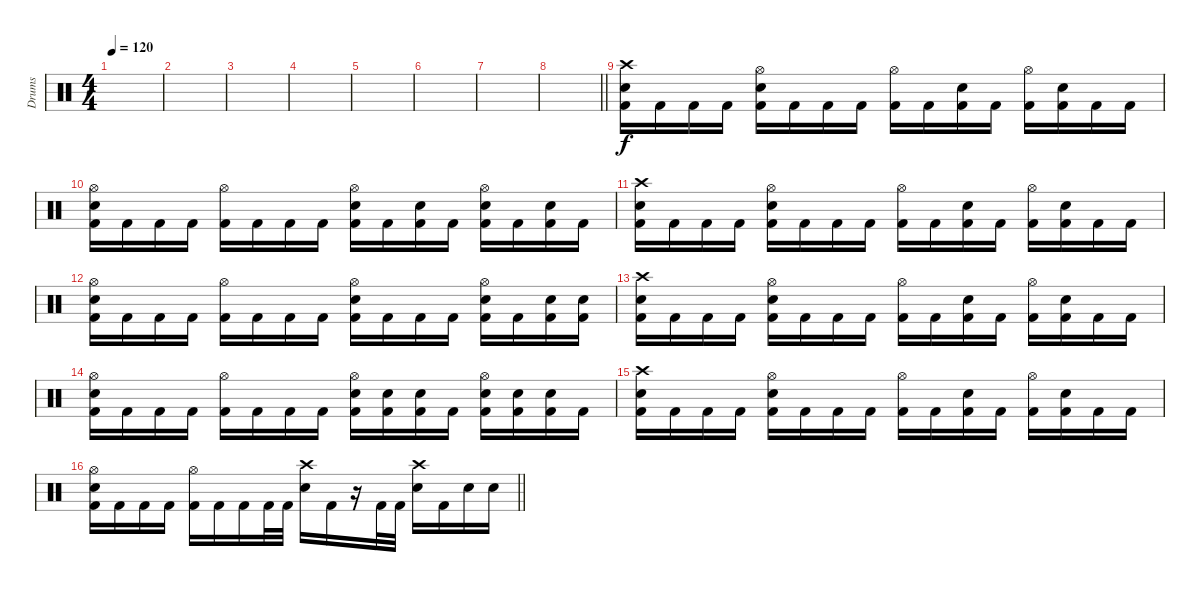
\track ("Drums" "Drums") {instrument percussion}
\staff
\articulation defaults
\ts (4 4)
\section ("" "")
\tempo 120
\clef neutral
\ks c
|
|
|
|
|
|
|
\barLineRight lightlight
|
\section ("" "")
("Crash high (hit)" "Electric Snare (hit)" "Kick (hit) 2").16 "Kick (hit) 2".16 "Kick (hit) 2".16 "Kick (hit) 2".16 ("Hi-Hat (open)" "Electric Snare (hit)" "Kick (hit) 2").16 "Kick (hit) 2".16 "Kick (hit) 2".16 "Kick (hit) 2".16 ("Hi-Hat (open)" "Kick (hit) 2").16 "Kick (hit) 2".16 ("Electric Snare (hit)" "Kick (hit) 2").16 "Kick (hit) 2".16 ("Hi-Hat (open)" "Kick (hit) 2").16 ("Electric Snare (hit)" "Kick (hit) 2").16 "Kick (hit) 2".16 "Kick (hit) 2".16 |
("Hi-Hat (open)" "Electric Snare (hit)" "Kick (hit) 2").16 "Kick (hit) 2".16 "Kick (hit) 2".16 "Kick (hit) 2".16 ("Hi-Hat (open)" "Kick (hit) 2").16 "Kick (hit) 2".16 "Kick (hit) 2".16 "Kick (hit) 2".16 ("Hi-Hat (open)" "Electric Snare (hit)" "Kick (hit) 2").16 "Kick (hit) 2".16 ("Electric Snare (hit)" "Kick (hit) 2").16 "Kick (hit) 2".16 ("Hi-Hat (open)" "Electric Snare (hit)" "Kick (hit) 2").16 "Kick (hit) 2".16 ("Electric Snare (hit)" "Kick (hit) 2").16 "Kick (hit) 2".16 |
("Crash high (hit)" "Electric Snare (hit)" "Kick (hit) 2").16 "Kick (hit) 2".16 "Kick (hit) 2".16 "Kick (hit) 2".16 ("Hi-Hat (open)" "Electric Snare (hit)" "Kick (hit) 2").16 "Kick (hit) 2".16 "Kick (hit) 2".16 "Kick (hit) 2".16 ("Hi-Hat (open)" "Kick (hit) 2").16 "Kick (hit) 2".16 ("Electric Snare (hit)" "Kick (hit) 2").16 "Kick (hit) 2".16 ("Hi-Hat (open)" "Kick (hit) 2").16 ("Electric Snare (hit)" "Kick (hit) 2").16 "Kick (hit) 2".16 "Kick (hit) 2".16 |
("Hi-Hat (open)" "Electric Snare (hit)" "Kick (hit) 2").16 "Kick (hit) 2".16 "Kick (hit) 2".16 "Kick (hit) 2".16 ("Hi-Hat (open)" "Kick (hit) 2").16 "Kick (hit) 2".16 "Kick (hit) 2".16 "Kick (hit) 2".16 ("Hi-Hat (open)" "Electric Snare (hit)" "Kick (hit) 2").16 "Kick (hit) 2".16 "Kick (hit) 2".16 "Kick (hit) 2".16 ("Hi-Hat (open)" "Electric Snare (hit)" "Kick (hit) 2").16 "Kick (hit) 2".16 ("Electric Snare (hit)" "Kick (hit) 2").16 ("Electric Snare (hit)" "Kick (hit) 2").16 |
("Crash high (hit)" "Electric Snare (hit)" "Kick (hit) 2").16 "Kick (hit) 2".16 "Kick (hit) 2".16 "Kick (hit) 2".16 ("Hi-Hat (open)" "Electric Snare (hit)" "Kick (hit) 2").16 "Kick (hit) 2".16 "Kick (hit) 2".16 "Kick (hit) 2".16 ("Hi-Hat (open)" "Kick (hit) 2").16 "Kick (hit) 2".16 ("Electric Snare (hit)" "Kick (hit) 2").16 "Kick (hit) 2".16 ("Hi-Hat (open)" "Kick (hit) 2").16 ("Electric Snare (hit)" "Kick (hit) 2").16 "Kick (hit) 2".16 "Kick (hit) 2".16 |
("Hi-Hat (open)" "Electric Snare (hit)" "Kick (hit) 2").16 "Kick (hit) 2".16 "Kick (hit) 2".16 "Kick (hit) 2".16 ("Hi-Hat (open)" "Kick (hit) 2").16 "Kick (hit) 2".16 "Kick (hit) 2".16 "Kick (hit) 2".16 ("Hi-Hat (open)" "Electric Snare (hit)" "Kick (hit) 2").16 ("Electric Snare (hit)" "Kick (hit) 2").16 ("Electric Snare (hit)" "Kick (hit) 2").16 "Kick (hit) 2".16 ("Hi-Hat (open)" "Electric Snare (hit)" "Kick (hit) 2").16 ("Electric Snare (hit)" "Kick (hit) 2").16 ("Electric Snare (hit)" "Kick (hit) 2").16 "Kick (hit) 2".16 |
("Crash high (hit)" "Electric Snare (hit)" "Kick (hit) 2").16 "Kick (hit) 2".16 "Kick (hit) 2".16 "Kick (hit) 2".16 ("Hi-Hat (open)" "Electric Snare (hit)" "Kick (hit) 2").16 "Kick (hit) 2".16 "Kick (hit) 2".16 "Kick (hit) 2".16 ("Hi-Hat (open)" "Kick (hit) 2").16 "Kick (hit) 2".16 ("Electric Snare (hit)" "Kick (hit) 2").16 "Kick (hit) 2".16 ("Hi-Hat (open)" "Kick (hit) 2").16 ("Electric Snare (hit)" "Kick (hit) 2").16 "Kick (hit) 2".16 "Kick (hit) 2".16 |
\barLineRight lightlight
("Hi-Hat (open)" "Electric Snare (hit)" "Kick (hit) 2").16 "Kick (hit) 2".16 "Kick (hit) 2".16 "Kick (hit) 2".16 ("Hi-Hat (open)" "Kick (hit) 2").16 "Kick (hit) 2".16 "Kick (hit) 2".16 "Kick (hit) 2".32 "Kick (hit) 2".32 ("Crash high (hit)" "Electric Snare (hit)").16 "Kick (hit) 2".16 r.16 "Kick (hit) 2".32 "Kick (hit) 2".32 ("Crash high (hit)" "Electric Snare (hit)").16 "Kick (hit) 2".16 "Electric Snare (hit)".16 "Electric Snare (hit)".16
